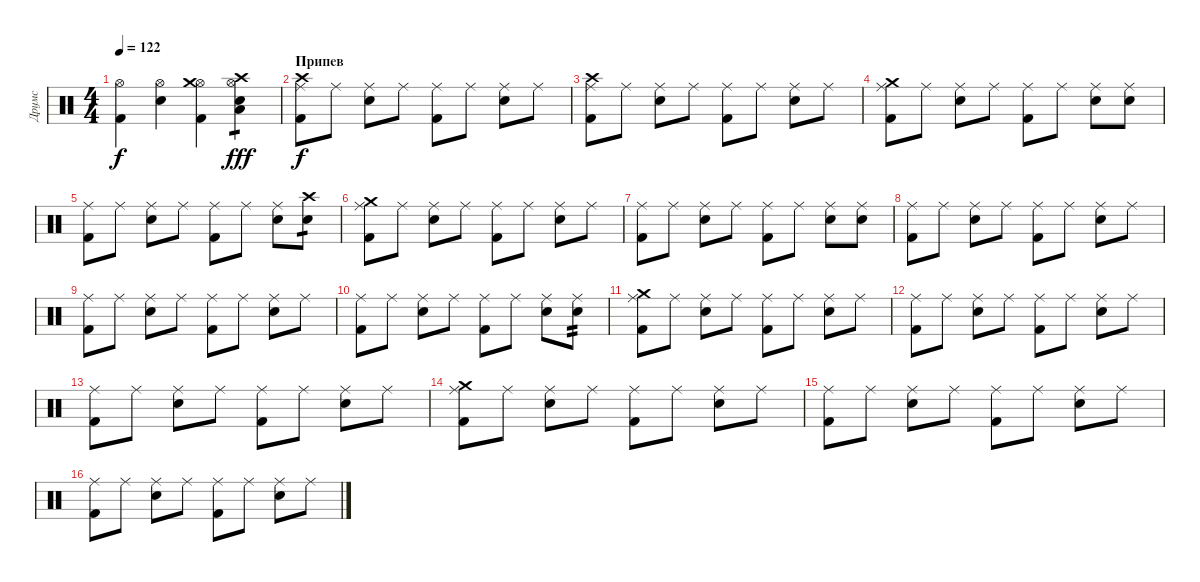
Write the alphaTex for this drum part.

\track ("Друмс" "Друмс") {instrument percussion}
\staff {score}
\articulation defaults
\ts (4 4)
\tempo 122
\clef neutral
\ks c
("Hi-Hat (open)" "Kick (hit) 2").4{dy f} ("Hi-Hat (open)" "Snare (hit) 2").4 ("Hi-Hat (open)" "Kick (hit) 2" "Crash medium (hit)").4 ("Hi-Hat (open)" "Snare (hit) 2" "Crash high (hit)" "Low Tom (hit)").4{tp 1 dy fff} |
\section ("" "Припев")
("Ride (middle)" "Kick (hit) 2" "Crash high (hit)").8{dy f} "Ride (middle)".8 ("Ride (middle)" "Snare (hit) 2").8 "Ride (middle)".8 ("Ride (middle)" "Kick (hit) 2").8 "Ride (middle)".8 ("Ride (middle)" "Snare (hit) 2").8 "Ride (middle)".8 |
("Ride (middle)" "Kick (hit) 2" "Crash high (hit)").8 "Ride (middle)".8 ("Ride (middle)" "Snare (hit) 2").8 "Ride (middle)".8 ("Ride (middle)" "Kick (hit) 2").8 "Ride (middle)".8 ("Ride (middle)" "Snare (hit) 2").8 "Ride (middle)".8 |
("Ride (middle)" "Kick (hit) 2" "Crash medium (hit)").8 "Ride (middle)".8 ("Ride (middle)" "Snare (hit) 2").8 "Ride (middle)".8 ("Ride (middle)" "Kick (hit) 2").8 "Ride (middle)".8 ("Ride (middle)" "Snare (hit) 2").8 ("Ride (middle)" "Snare (hit) 2").8 |
("Ride (middle)" "Kick (hit) 2").8 "Ride (middle)".8 ("Ride (middle)" "Snare (hit) 2").8 "Ride (middle)".8 ("Ride (middle)" "Kick (hit) 2").8 "Ride (middle)".8 ("Ride (middle)" "Snare (hit) 2").8 ("Crash high (hit)" "Snare (hit) 2").8{bd 480 tp 1} |
("Ride (middle)" "Kick (hit) 2" "Crash medium (hit)").8 "Ride (middle)".8 ("Ride (middle)" "Snare (hit) 2").8 "Ride (middle)".8 ("Ride (middle)" "Kick (hit) 2").8 "Ride (middle)".8 ("Ride (middle)" "Snare (hit) 2").8 "Ride (middle)".8 |
("Ride (middle)" "Kick (hit) 2").8 "Ride (middle)".8 ("Ride (middle)" "Snare (hit) 2").8 "Ride (middle)".8 ("Ride (middle)" "Kick (hit) 2").8 "Ride (middle)".8 ("Ride (middle)" "Snare (hit) 2").8 ("Ride (middle)" "Snare (hit) 2").8 |
("Ride (middle)" "Kick (hit) 2").8 "Ride (middle)".8 ("Ride (middle)" "Snare (hit) 2").8 "Ride (middle)".8 ("Ride (middle)" "Kick (hit) 2").8 "Ride (middle)".8 ("Ride (middle)" "Snare (hit) 2").8 "Ride (middle)".8 |
("Ride (middle)" "Kick (hit) 2").8 "Ride (middle)".8 ("Ride (middle)" "Snare (hit) 2").8 "Ride (middle)".8 ("Ride (middle)" "Kick (hit) 2").8 "Ride (middle)".8 ("Ride (middle)" "Snare (hit) 2").8 "Ride (middle)".8 |
("Ride (middle)" "Kick (hit) 2").8 "Ride (middle)".8 ("Ride (middle)" "Snare (hit) 2").8 "Ride (middle)".8 ("Ride (middle)" "Kick (hit) 2").8 "Ride (middle)".8 ("Ride (middle)" "Snare (hit) 2").8 ("Ride (middle)" "Snare (hit) 2").8{tp 2} |
("Ride (middle)" "Kick (hit) 2" "Crash medium (hit)").8 "Ride (middle)".8 ("Ride (middle)" "Snare (hit) 2").8 "Ride (middle)".8 ("Ride (middle)" "Kick (hit) 2").8 "Ride (middle)".8 ("Ride (middle)" "Snare (hit) 2").8 "Ride (middle)".8 |
("Ride (middle)" "Kick (hit) 2").8 "Ride (middle)".8 ("Ride (middle)" "Snare (hit) 2").8 "Ride (middle)".8 ("Ride (middle)" "Kick (hit) 2").8 "Ride (middle)".8 ("Ride (middle)" "Snare (hit) 2").8 "Ride (middle)".8 |
("Ride (middle)" "Kick (hit) 2").8 "Ride (middle)".8 ("Ride (middle)" "Snare (hit) 2").8 "Ride (middle)".8 ("Ride (middle)" "Kick (hit) 2").8 "Ride (middle)".8 ("Ride (middle)" "Snare (hit) 2").8 "Ride (middle)".8 |
("Ride (middle)" "Kick (hit) 2" "Crash medium (hit)").8 "Ride (middle)".8 ("Ride (middle)" "Snare (hit) 2").8 "Ride (middle)".8 ("Ride (middle)" "Kick (hit) 2").8 "Ride (middle)".8 ("Ride (middle)" "Snare (hit) 2").8 "Ride (middle)".8 |
("Ride (middle)" "Kick (hit) 2").8 "Ride (middle)".8 ("Ride (middle)" "Snare (hit) 2").8 "Ride (middle)".8 ("Ride (middle)" "Kick (hit) 2").8 "Ride (middle)".8 ("Ride (middle)" "Snare (hit) 2").8 "Ride (middle)".8 |
("Ride (middle)" "Kick (hit) 2").8 "Ride (middle)".8 ("Ride (middle)" "Snare (hit) 2").8 "Ride (middle)".8 ("Ride (middle)" "Kick (hit) 2").8 "Ride (middle)".8 ("Ride (middle)" "Snare (hit) 2").8 "Ride (middle)".8
